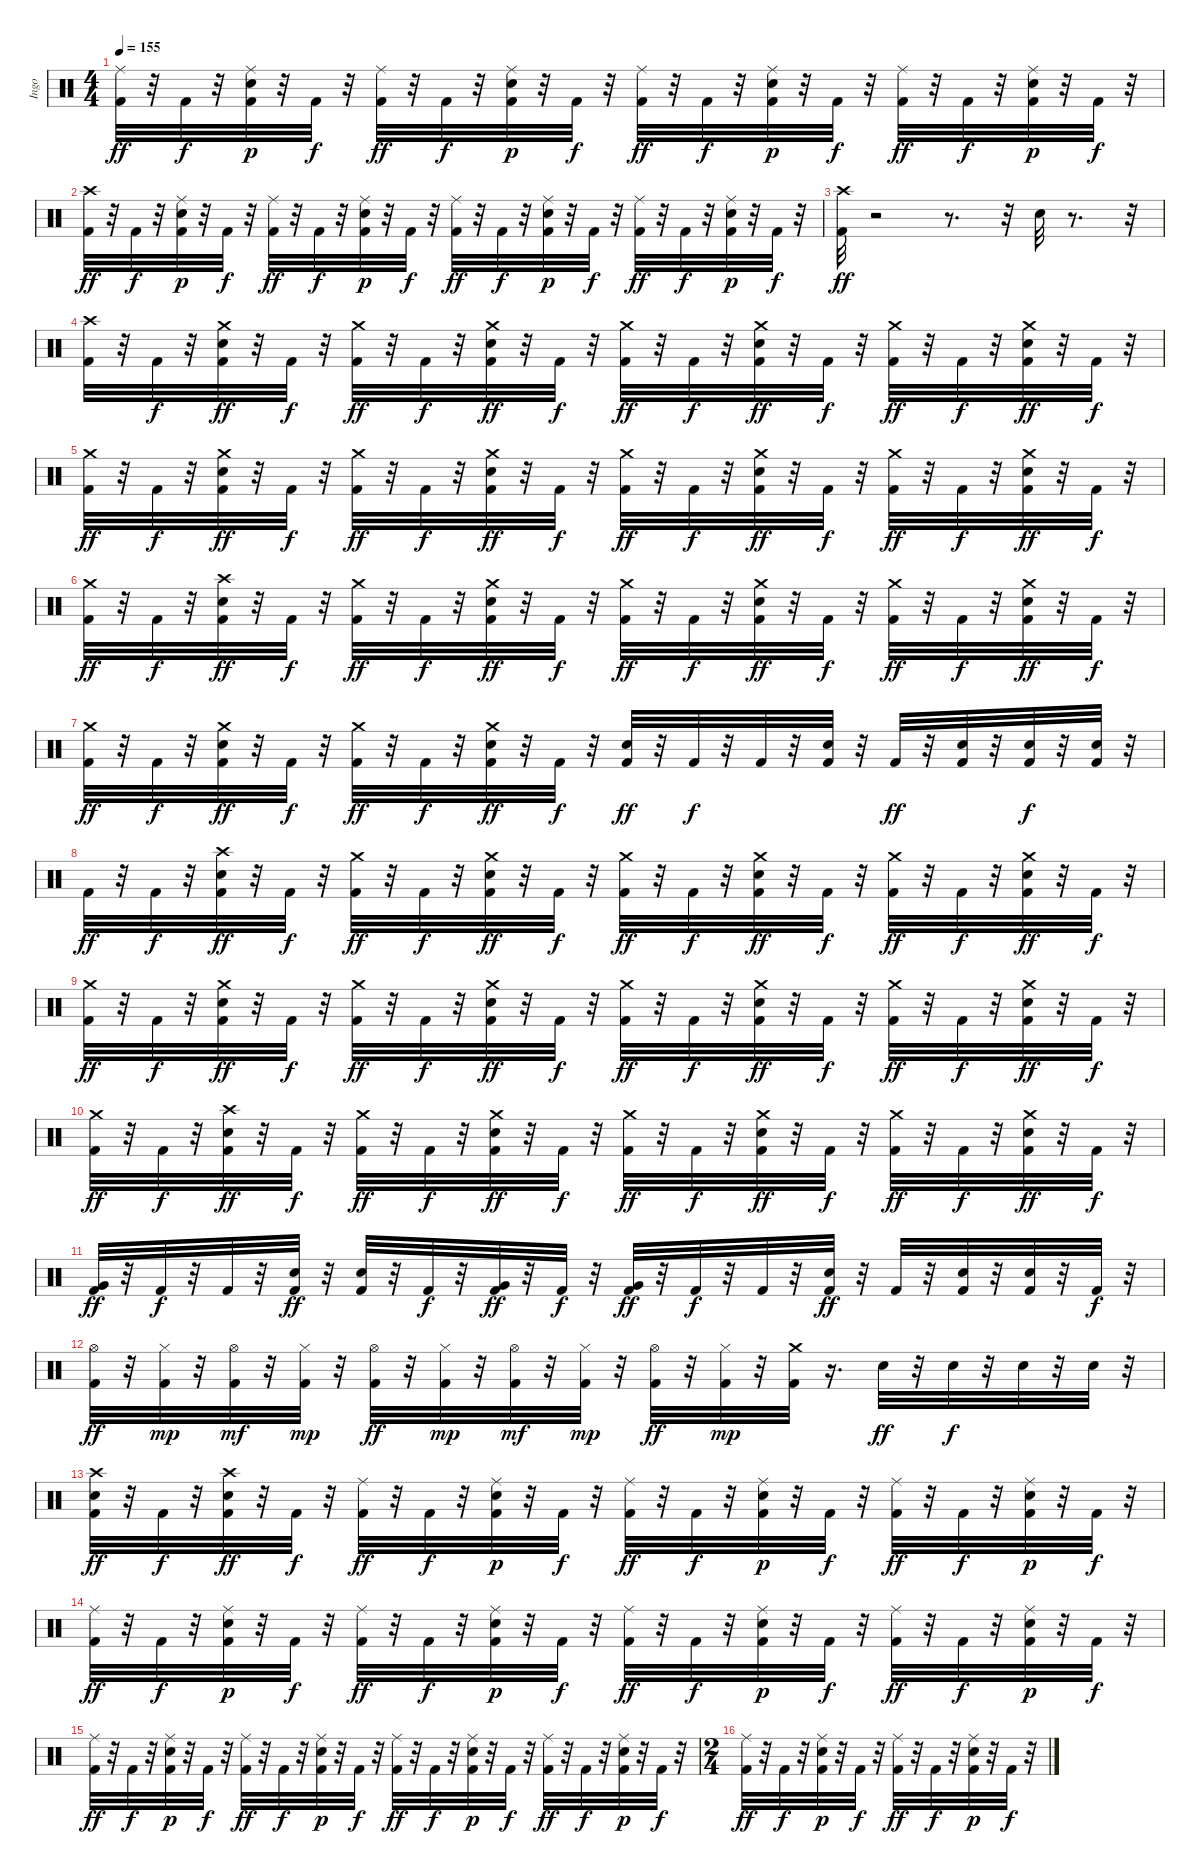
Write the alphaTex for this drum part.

\track ("Ingo" "Ingo") {instrument percussion}
\staff {score}
\articulation defaults
\ts (4 4)
\tempo 155
\clef neutral
\ks c
("Ride (middle)" "Kick (hit) 2").32{dy ff} r.32 "Kick (hit) 2".32{dy f} r.32 ("Kick (hit) 2" "Snare (hit) 2" "Ride (middle)").32{dy p} r.32 "Kick (hit) 2".32{dy f} r.32 ("Ride (middle)" "Kick (hit) 2").32{dy ff} r.32 "Kick (hit) 2".32{dy f} r.32 ("Kick (hit) 2" "Snare (hit) 2" "Ride (middle)").32{dy p} r.32 "Kick (hit) 2".32{dy f} r.32 ("Ride (middle)" "Kick (hit) 2").32{dy ff} r.32 "Kick (hit) 2".32{dy f} r.32 ("Kick (hit) 2" "Snare (hit) 2" "Ride (middle)").32{dy p} r.32 "Kick (hit) 2".32{dy f} r.32 ("Ride (middle)" "Kick (hit) 2").32{dy ff} r.32 "Kick (hit) 2".32{dy f} r.32 ("Kick (hit) 2" "Snare (hit) 2" "Ride (middle)").32{dy p} r.32 "Kick (hit) 2".32{dy f} r.32 |
("Crash high (hit)" "Kick (hit) 2").32{dy ff} r.32 "Kick (hit) 2".32{dy f} r.32 ("Kick (hit) 2" "Snare (hit) 2" "Ride (middle)").32{dy p} r.32 "Kick (hit) 2".32{dy f} r.32 ("Ride (middle)" "Kick (hit) 2").32{dy ff} r.32 "Kick (hit) 2".32{dy f} r.32 ("Kick (hit) 2" "Snare (hit) 2" "Ride (middle)").32{dy p} r.32 "Kick (hit) 2".32{dy f} r.32 ("Ride (middle)" "Kick (hit) 2").32{dy ff} r.32 "Kick (hit) 2".32{dy f} r.32 ("Kick (hit) 2" "Snare (hit) 2" "Ride (middle)").32{dy p} r.32 "Kick (hit) 2".32{dy f} r.32 ("Ride (middle)" "Kick (hit) 2").32{dy ff} r.32 "Kick (hit) 2".32{dy f} r.32 ("Kick (hit) 2" "Snare (hit) 2" "Ride (middle)").32{dy p} r.32 "Kick (hit) 2".32{dy f} r.32 |
("Kick (hit) 2" "Crash high (hit)").32{dy ff} r.2 r.8{d} r.32 "Snare (hit) 2".32 r.8{d} r.32 |
("Crash high (hit)" "Kick (hit) 2").32 r.32 "Kick (hit) 2".32{dy f} r.32 ("Kick (hit) 2" "Crash medium (hit)" "Snare (hit) 2").32{dy ff} r.32 "Kick (hit) 2".32{dy f} r.32 ("Crash medium (hit)" "Kick (hit) 2").32{dy ff} r.32 "Kick (hit) 2".32{dy f} r.32 ("Kick (hit) 2" "Crash medium (hit)" "Snare (hit) 2").32{dy ff} r.32 "Kick (hit) 2".32{dy f} r.32 ("Crash medium (hit)" "Kick (hit) 2").32{dy ff} r.32 "Kick (hit) 2".32{dy f} r.32 ("Kick (hit) 2" "Crash medium (hit)" "Snare (hit) 2").32{dy ff} r.32 "Kick (hit) 2".32{dy f} r.32 ("Crash medium (hit)" "Kick (hit) 2").32{dy ff} r.32 "Kick (hit) 2".32{dy f} r.32 ("Kick (hit) 2" "Crash medium (hit)" "Snare (hit) 2").32{dy ff} r.32 "Kick (hit) 2".32{dy f} r.32 |
("Crash medium (hit)" "Kick (hit) 2").32{dy ff} r.32 "Kick (hit) 2".32{dy f} r.32 ("Kick (hit) 2" "Crash medium (hit)" "Snare (hit) 2").32{dy ff} r.32 "Kick (hit) 2".32{dy f} r.32 ("Crash medium (hit)" "Kick (hit) 2").32{dy ff} r.32 "Kick (hit) 2".32{dy f} r.32 ("Kick (hit) 2" "Crash medium (hit)" "Snare (hit) 2").32{dy ff} r.32 "Kick (hit) 2".32{dy f} r.32 ("Crash medium (hit)" "Kick (hit) 2").32{dy ff} r.32 "Kick (hit) 2".32{dy f} r.32 ("Kick (hit) 2" "Crash medium (hit)" "Snare (hit) 2").32{dy ff} r.32 "Kick (hit) 2".32{dy f} r.32 ("Crash medium (hit)" "Kick (hit) 2").32{dy ff} r.32 "Kick (hit) 2".32{dy f} r.32 ("Kick (hit) 2" "Crash medium (hit)" "Snare (hit) 2").32{dy ff} r.32 "Kick (hit) 2".32{dy f} r.32 |
("Crash medium (hit)" "Kick (hit) 2").32{dy ff} r.32 "Kick (hit) 2".32{dy f} r.32 ("Snare (hit) 2" "Crash high (hit)" "Kick (hit) 2").32{dy ff} r.32 "Kick (hit) 2".32{dy f} r.32 ("Crash medium (hit)" "Kick (hit) 2").32{dy ff} r.32 "Kick (hit) 2".32{dy f} r.32 ("Kick (hit) 2" "Crash medium (hit)" "Snare (hit) 2").32{dy ff} r.32 "Kick (hit) 2".32{dy f} r.32 ("Crash medium (hit)" "Kick (hit) 2").32{dy ff} r.32 "Kick (hit) 2".32{dy f} r.32 ("Kick (hit) 2" "Crash medium (hit)" "Snare (hit) 2").32{dy ff} r.32 "Kick (hit) 2".32{dy f} r.32 ("Crash medium (hit)" "Kick (hit) 2").32{dy ff} r.32 "Kick (hit) 2".32{dy f} r.32 ("Kick (hit) 2" "Crash medium (hit)" "Snare (hit) 2").32{dy ff} r.32 "Kick (hit) 2".32{dy f} r.32 |
("Crash medium (hit)" "Kick (hit) 2").32{dy ff} r.32 "Kick (hit) 2".32{dy f} r.32 ("Kick (hit) 2" "Crash medium (hit)" "Snare (hit) 2").32{dy ff} r.32 "Kick (hit) 2".32{dy f} r.32 ("Crash medium (hit)" "Kick (hit) 2").32{dy ff} r.32 "Kick (hit) 2".32{dy f} r.32 ("Kick (hit) 2" "Crash medium (hit)" "Snare (hit) 2").32{dy ff} r.32 "Kick (hit) 2".32{dy f} r.32 ("Snare (hit) 2" "Kick (hit) 2").32{dy ff} r.32 "Kick (hit) 2".32{dy f} r.32 "Kick (hit) 2".32 r.32 ("Snare (hit) 2" "Kick (hit) 2").32 r.32 "Kick (hit) 2".32{dy ff} r.32 ("Snare (hit) 2" "Kick (hit) 2").32 r.32 ("Snare (hit) 2" "Kick (hit) 2").32{dy f} r.32 ("Snare (hit) 2" "Kick (hit) 2").32 r.32 |
"Kick (hit) 2".32{dy ff} r.32 "Kick (hit) 2".32{dy f} r.32 ("Snare (hit) 2" "Crash high (hit)" "Kick (hit) 2").32{dy ff} r.32 "Kick (hit) 2".32{dy f} r.32 ("Crash medium (hit)" "Kick (hit) 2").32{dy ff} r.32 "Kick (hit) 2".32{dy f} r.32 ("Kick (hit) 2" "Crash medium (hit)" "Snare (hit) 2").32{dy ff} r.32 "Kick (hit) 2".32{dy f} r.32 ("Crash medium (hit)" "Kick (hit) 2").32{dy ff} r.32 "Kick (hit) 2".32{dy f} r.32 ("Kick (hit) 2" "Crash medium (hit)" "Snare (hit) 2").32{dy ff} r.32 "Kick (hit) 2".32{dy f} r.32 ("Crash medium (hit)" "Kick (hit) 2").32{dy ff} r.32 "Kick (hit) 2".32{dy f} r.32 ("Kick (hit) 2" "Crash medium (hit)" "Snare (hit) 2").32{dy ff} r.32 "Kick (hit) 2".32{dy f} r.32 |
("Crash medium (hit)" "Kick (hit) 2").32{dy ff} r.32 "Kick (hit) 2".32{dy f} r.32 ("Kick (hit) 2" "Crash medium (hit)" "Snare (hit) 2").32{dy ff} r.32 "Kick (hit) 2".32{dy f} r.32 ("Crash medium (hit)" "Kick (hit) 2").32{dy ff} r.32 "Kick (hit) 2".32{dy f} r.32 ("Kick (hit) 2" "Crash medium (hit)" "Snare (hit) 2").32{dy ff} r.32 "Kick (hit) 2".32{dy f} r.32 ("Crash medium (hit)" "Kick (hit) 2").32{dy ff} r.32 "Kick (hit) 2".32{dy f} r.32 ("Kick (hit) 2" "Crash medium (hit)" "Snare (hit) 2").32{dy ff} r.32 "Kick (hit) 2".32{dy f} r.32 ("Crash medium (hit)" "Kick (hit) 2").32{dy ff} r.32 "Kick (hit) 2".32{dy f} r.32 ("Kick (hit) 2" "Crash medium (hit)" "Snare (hit) 2").32{dy ff} r.32 "Kick (hit) 2".32{dy f} r.32 |
("Crash medium (hit)" "Kick (hit) 2").32{dy ff} r.32 "Kick (hit) 2".32{dy f} r.32 ("Snare (hit) 2" "Crash high (hit)" "Kick (hit) 2").32{dy ff} r.32 "Kick (hit) 2".32{dy f} r.32 ("Crash medium (hit)" "Kick (hit) 2").32{dy ff} r.32 "Kick (hit) 2".32{dy f} r.32 ("Kick (hit) 2" "Crash medium (hit)" "Snare (hit) 2").32{dy ff} r.32 "Kick (hit) 2".32{dy f} r.32 ("Crash medium (hit)" "Kick (hit) 2").32{dy ff} r.32 "Kick (hit) 2".32{dy f} r.32 ("Kick (hit) 2" "Crash medium (hit)" "Snare (hit) 2").32{dy ff} r.32 "Kick (hit) 2".32{dy f} r.32 ("Crash medium (hit)" "Kick (hit) 2").32{dy ff} r.32 "Kick (hit) 2".32{dy f} r.32 ("Kick (hit) 2" "Crash medium (hit)" "Snare (hit) 2").32{dy ff} r.32 "Kick (hit) 2".32{dy f} r.32 |
("Very Low Tom (hit)" "Kick (hit) 2").32{dy ff} r.32 "Kick (hit) 2".32{dy f} r.32 "Kick (hit) 2".32 r.32 ("Snare (hit) 2" "Kick (hit) 2").32{dy ff} r.32 ("Snare (hit) 2" "Kick (hit) 2").32 r.32 "Kick (hit) 2".32{dy f} r.32 ("Very Low Tom (hit)" "Kick (hit) 2").32{dy ff} r.32 "Kick (hit) 2".32{dy f} r.32 ("Very Low Tom (hit)" "Kick (hit) 2").32{dy ff} r.32 "Kick (hit) 2".32{dy f} r.32 "Kick (hit) 2".32 r.32 ("Snare (hit) 2" "Kick (hit) 2").32{dy ff} r.32 "Kick (hit) 2".32 r.32 ("Snare (hit) 2" "Kick (hit) 2").32 r.32 ("Snare (hit) 2" "Kick (hit) 2").32 r.32 "Kick (hit) 2".32{dy f} r.32 |
("Hi-Hat (open)" "Kick (hit) 2").32{dy ff} r.32 ("Hi-Hat (closed)" "Kick (hit) 2").32{dy mp} r.32 ("Hi-Hat (open)" "Kick (hit) 2").32{dy mf} r.32 ("Hi-Hat (closed)" "Kick (hit) 2").32{dy mp} r.32 ("Hi-Hat (open)" "Kick (hit) 2").32{dy ff} r.32 ("Hi-Hat (closed)" "Kick (hit) 2").32{dy mp} r.32 ("Hi-Hat (open)" "Kick (hit) 2").32{dy mf} r.32 ("Hi-Hat (closed)" "Kick (hit) 2").32{dy mp} r.32 ("Hi-Hat (open)" "Kick (hit) 2").32{dy ff} r.32 ("Hi-Hat (closed)" "Kick (hit) 2").32{dy mp} r.32 ("Kick (hit) 2" "Crash medium (hit)").32 r.16{d} "Snare (hit) 2".32{dy ff} r.32 "Snare (hit) 2".32{dy f} r.32 "Snare (hit) 2".32 r.32 "Snare (hit) 2".32 r.32 |
("Kick (hit) 2" "Crash high (hit)" "Snare (hit) 2").32{dy ff} r.32 "Kick (hit) 2".32{dy f} r.32 ("Kick (hit) 2" "Snare (hit) 2" "Crash high (hit)").32{dy ff} r.32 "Kick (hit) 2".32{dy f} r.32 ("Ride (middle)" "Kick (hit) 2").32{dy ff} r.32 "Kick (hit) 2".32{dy f} r.32 ("Kick (hit) 2" "Snare (hit) 2" "Ride (middle)").32{dy p} r.32 "Kick (hit) 2".32{dy f} r.32 ("Ride (middle)" "Kick (hit) 2").32{dy ff} r.32 "Kick (hit) 2".32{dy f} r.32 ("Kick (hit) 2" "Snare (hit) 2" "Ride (middle)").32{dy p} r.32 "Kick (hit) 2".32{dy f} r.32 ("Ride (middle)" "Kick (hit) 2").32{dy ff} r.32 "Kick (hit) 2".32{dy f} r.32 ("Kick (hit) 2" "Snare (hit) 2" "Ride (middle)").32{dy p} r.32 "Kick (hit) 2".32{dy f} r.32 |
("Ride (middle)" "Kick (hit) 2").32{dy ff} r.32 "Kick (hit) 2".32{dy f} r.32 ("Kick (hit) 2" "Snare (hit) 2" "Ride (middle)").32{dy p} r.32 "Kick (hit) 2".32{dy f} r.32 ("Ride (middle)" "Kick (hit) 2").32{dy ff} r.32 "Kick (hit) 2".32{dy f} r.32 ("Kick (hit) 2" "Snare (hit) 2" "Ride (middle)").32{dy p} r.32 "Kick (hit) 2".32{dy f} r.32 ("Ride (middle)" "Kick (hit) 2").32{dy ff} r.32 "Kick (hit) 2".32{dy f} r.32 ("Kick (hit) 2" "Snare (hit) 2" "Ride (middle)").32{dy p} r.32 "Kick (hit) 2".32{dy f} r.32 ("Ride (middle)" "Kick (hit) 2").32{dy ff} r.32 "Kick (hit) 2".32{dy f} r.32 ("Kick (hit) 2" "Snare (hit) 2" "Ride (middle)").32{dy p} r.32 "Kick (hit) 2".32{dy f} r.32 |
("Ride (middle)" "Kick (hit) 2").32{dy ff} r.32 "Kick (hit) 2".32{dy f} r.32 ("Kick (hit) 2" "Snare (hit) 2" "Ride (middle)").32{dy p} r.32 "Kick (hit) 2".32{dy f} r.32 ("Ride (middle)" "Kick (hit) 2").32{dy ff} r.32 "Kick (hit) 2".32{dy f} r.32 ("Kick (hit) 2" "Snare (hit) 2" "Ride (middle)").32{dy p} r.32 "Kick (hit) 2".32{dy f} r.32 ("Ride (middle)" "Kick (hit) 2").32{dy ff} r.32 "Kick (hit) 2".32{dy f} r.32 ("Kick (hit) 2" "Snare (hit) 2" "Ride (middle)").32{dy p} r.32 "Kick (hit) 2".32{dy f} r.32 ("Ride (middle)" "Kick (hit) 2").32{dy ff} r.32 "Kick (hit) 2".32{dy f} r.32 ("Kick (hit) 2" "Snare (hit) 2" "Ride (middle)").32{dy p} r.32 "Kick (hit) 2".32{dy f} r.32 |
\ts (2 4)
("Ride (middle)" "Kick (hit) 2").32{dy ff} r.32 "Kick (hit) 2".32{dy f} r.32 ("Kick (hit) 2" "Snare (hit) 2" "Ride (middle)").32{dy p} r.32 "Kick (hit) 2".32{dy f} r.32 ("Ride (middle)" "Kick (hit) 2").32{dy ff} r.32 "Kick (hit) 2".32{dy f} r.32 ("Kick (hit) 2" "Snare (hit) 2" "Ride (middle)").32{dy p} r.32 "Kick (hit) 2".32{dy f} r.32
